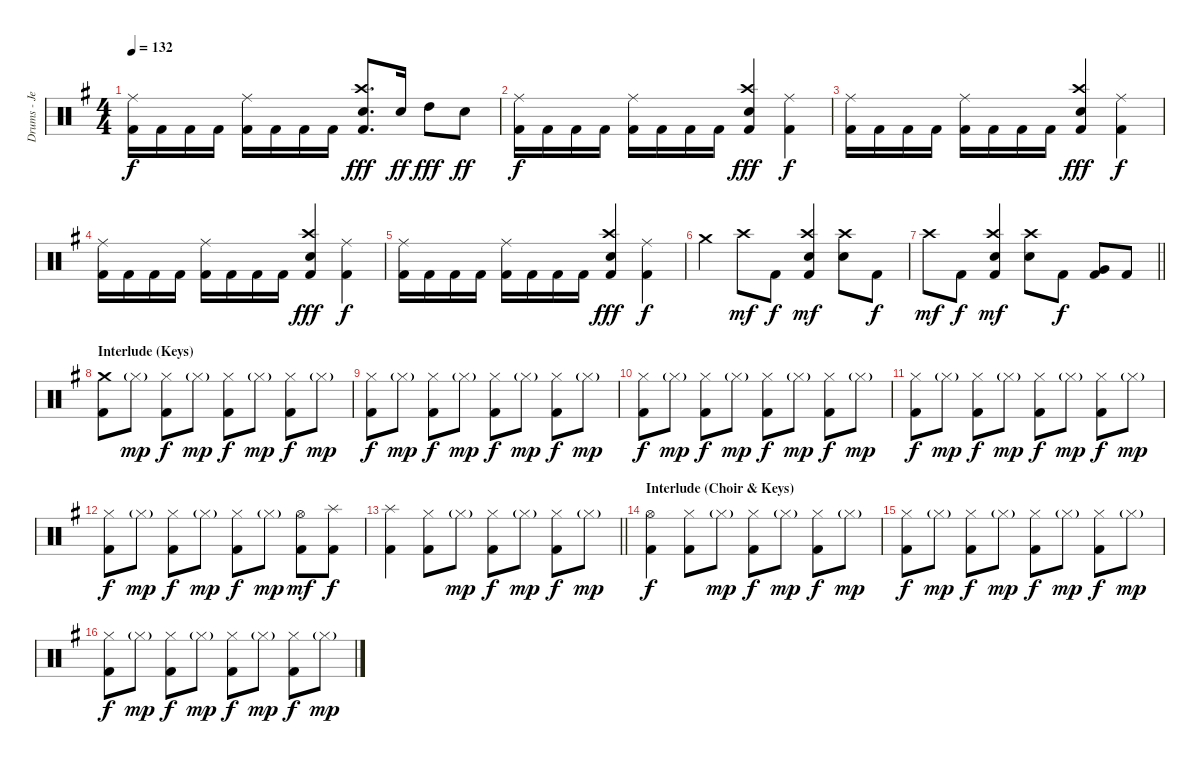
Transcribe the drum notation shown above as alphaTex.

\track ("Drums - Jeroen Simons " "Drums - Je") {instrument percussion}
\staff {score}
\articulation defaults
\ts (4 4)
\tempo 132
\clef neutral
\ks g
("Ride (middle)" "Kick (hit) 2").16{dy f} "Kick (hit) 2".16 "Kick (hit) 2".16 "Kick (hit) 2".16 ("Ride (middle)" "Kick (hit) 2").16 "Kick (hit) 2".16 "Kick (hit) 2".16 "Kick (hit) 2".16 ("Crash high (hit)" "Electric Snare (hit)" "Kick (hit) 2").8{d dy fff} "Electric Snare (hit)".16{dy ff} "High Tom (hit)".8{dy fff} "Electric Snare (hit)".8{dy ff} |
("Ride (middle)" "Kick (hit) 2").16{dy f} "Kick (hit) 2".16 "Kick (hit) 2".16 "Kick (hit) 2".16 ("Ride (middle)" "Kick (hit) 2").16 "Kick (hit) 2".16 "Kick (hit) 2".16 "Kick (hit) 2".16 ("Crash high (hit)" "Electric Snare (hit)" "Kick (hit) 2").4{dy fff} ("Ride (middle)" "Kick (hit) 2").4{dy f} |
("Ride (middle)" "Kick (hit) 2").16 "Kick (hit) 2".16 "Kick (hit) 2".16 "Kick (hit) 2".16 ("Ride (middle)" "Kick (hit) 2").16 "Kick (hit) 2".16 "Kick (hit) 2".16 "Kick (hit) 2".16 ("Crash high (hit)" "Electric Snare (hit)" "Kick (hit) 2").4{dy fff} ("Ride (middle)" "Kick (hit) 2").4{dy f} |
("Ride (middle)" "Kick (hit) 2").16 "Kick (hit) 2".16 "Kick (hit) 2".16 "Kick (hit) 2".16 ("Ride (middle)" "Kick (hit) 2").16 "Kick (hit) 2".16 "Kick (hit) 2".16 "Kick (hit) 2".16 ("Crash high (hit)" "Electric Snare (hit)" "Kick (hit) 2").4{dy fff} ("Ride (middle)" "Kick (hit) 2").4{dy f} |
("Ride (middle)" "Kick (hit) 2").16 "Kick (hit) 2".16 "Kick (hit) 2".16 "Kick (hit) 2".16 ("Ride (middle)" "Kick (hit) 2").16 "Kick (hit) 2".16 "Kick (hit) 2".16 "Kick (hit) 2".16 ("Crash high (hit)" "Electric Snare (hit)" "Kick (hit) 2").4{dy fff} ("Ride (middle)" "Kick (hit) 2").4{dy f} |
"Crash medium (hit)".4 "Crash high (hit)".8{dy mf} "Kick (hit) 2".8{dy f} ("Crash high (hit)" "Electric Snare (hit)" "Kick (hit) 2").4{dy mf} ("Crash high (hit)" "Electric Snare (hit)").8 "Kick (hit) 2".8{dy f} |
\barLineRight lightlight "Crash high (hit)".8{dy mf} "Kick (hit) 2".8{dy f}
("Crash high (hit)" "Electric Snare (hit)" "Kick (hit) 2").4{dy mf} ("Crash high (hit)" "Electric Snare (hit)").8 "Kick (hit) 2".8{dy f} ("Very Low Tom (hit)" "Kick (hit) 2").8 "Kick (hit) 2".8 |
\section ("" "Interlude (Keys)")
("Crash medium (hit)" "Kick (hit) 2").8 "Hi-Hat (closed)"{g}.8{dy mp} ("Hi-Hat (closed)" "Kick (hit) 2").8{dy f} "Hi-Hat (closed)"{g}.8{dy mp} ("Hi-Hat (closed)" "Kick (hit) 2").8{dy f} "Hi-Hat (closed)"{g}.8{dy mp} ("Hi-Hat (closed)" "Kick (hit) 2").8{dy f} "Hi-Hat (closed)"{g}.8{dy mp} |
("Hi-Hat (closed)" "Kick (hit) 2").8{dy f} "Hi-Hat (closed)"{g}.8{dy mp} ("Hi-Hat (closed)" "Kick (hit) 2").8{dy f} "Hi-Hat (closed)"{g}.8{dy mp} ("Hi-Hat (closed)" "Kick (hit) 2").8{dy f} "Hi-Hat (closed)"{g}.8{dy mp} ("Hi-Hat (closed)" "Kick (hit) 2").8{dy f} "Hi-Hat (closed)"{g}.8{dy mp} |
("Hi-Hat (closed)" "Kick (hit) 2").8{dy f} "Hi-Hat (closed)"{g}.8{dy mp} ("Hi-Hat (closed)" "Kick (hit) 2").8{dy f} "Hi-Hat (closed)"{g}.8{dy mp} ("Hi-Hat (closed)" "Kick (hit) 2").8{dy f} "Hi-Hat (closed)"{g}.8{dy mp} ("Hi-Hat (closed)" "Kick (hit) 2").8{dy f} "Hi-Hat (closed)"{g}.8{dy mp} |
("Hi-Hat (closed)" "Kick (hit) 2").8{dy f} "Hi-Hat (closed)"{g}.8{dy mp} ("Hi-Hat (closed)" "Kick (hit) 2").8{dy f} "Hi-Hat (closed)"{g}.8{dy mp} ("Hi-Hat (closed)" "Kick (hit) 2").8{dy f} "Hi-Hat (closed)"{g}.8{dy mp} ("Hi-Hat (closed)" "Kick (hit) 2").8{dy f} "Hi-Hat (closed)"{g}.8{dy mp} |
("Hi-Hat (closed)" "Kick (hit) 2").8{dy f} "Hi-Hat (closed)"{g}.8{dy mp} ("Hi-Hat (closed)" "Kick (hit) 2").8{dy f} "Hi-Hat (closed)"{g}.8{dy mp} ("Hi-Hat (closed)" "Kick (hit) 2").8{dy f} "Hi-Hat (closed)"{g}.8{dy mp} ("Hi-Hat (open)" "Kick (hit) 2").8{dy mf} ("Splash (hit)" "Kick (hit) 2").8{dy f} |
\barLineRight lightlight
("Splash (hit)" "Kick (hit) 2").4 ("Hi-Hat (closed)" "Kick (hit) 2").8 "Hi-Hat (closed)"{g}.8{dy mp} ("Hi-Hat (closed)" "Kick (hit) 2").8{dy f} "Hi-Hat (closed)"{g}.8{dy mp} ("Hi-Hat (closed)" "Kick (hit) 2").8{dy f} "Hi-Hat (closed)"{g}.8{dy mp} |
\section ("" "Interlude (Choir & Keys)")
("Hi-Hat (open)" "Kick (hit) 2").4{dy f} ("Hi-Hat (closed)" "Kick (hit) 2").8 "Hi-Hat (closed)"{g}.8{dy mp} ("Hi-Hat (closed)" "Kick (hit) 2").8{dy f} "Hi-Hat (closed)"{g}.8{dy mp} ("Hi-Hat (closed)" "Kick (hit) 2").8{dy f} "Hi-Hat (closed)"{g}.8{dy mp} |
("Hi-Hat (closed)" "Kick (hit) 2").8{dy f} "Hi-Hat (closed)"{g}.8{dy mp} ("Hi-Hat (closed)" "Kick (hit) 2").8{dy f} "Hi-Hat (closed)"{g}.8{dy mp} ("Hi-Hat (closed)" "Kick (hit) 2").8{dy f} "Hi-Hat (closed)"{g}.8{dy mp} ("Hi-Hat (closed)" "Kick (hit) 2").8{dy f} "Hi-Hat (closed)"{g}.8{dy mp} |
("Hi-Hat (closed)" "Kick (hit) 2").8{dy f} "Hi-Hat (closed)"{g}.8{dy mp} ("Hi-Hat (closed)" "Kick (hit) 2").8{dy f} "Hi-Hat (closed)"{g}.8{dy mp} ("Hi-Hat (closed)" "Kick (hit) 2").8{dy f} "Hi-Hat (closed)"{g}.8{dy mp} ("Hi-Hat (closed)" "Kick (hit) 2").8{dy f} "Hi-Hat (closed)"{g}.8{dy mp}
